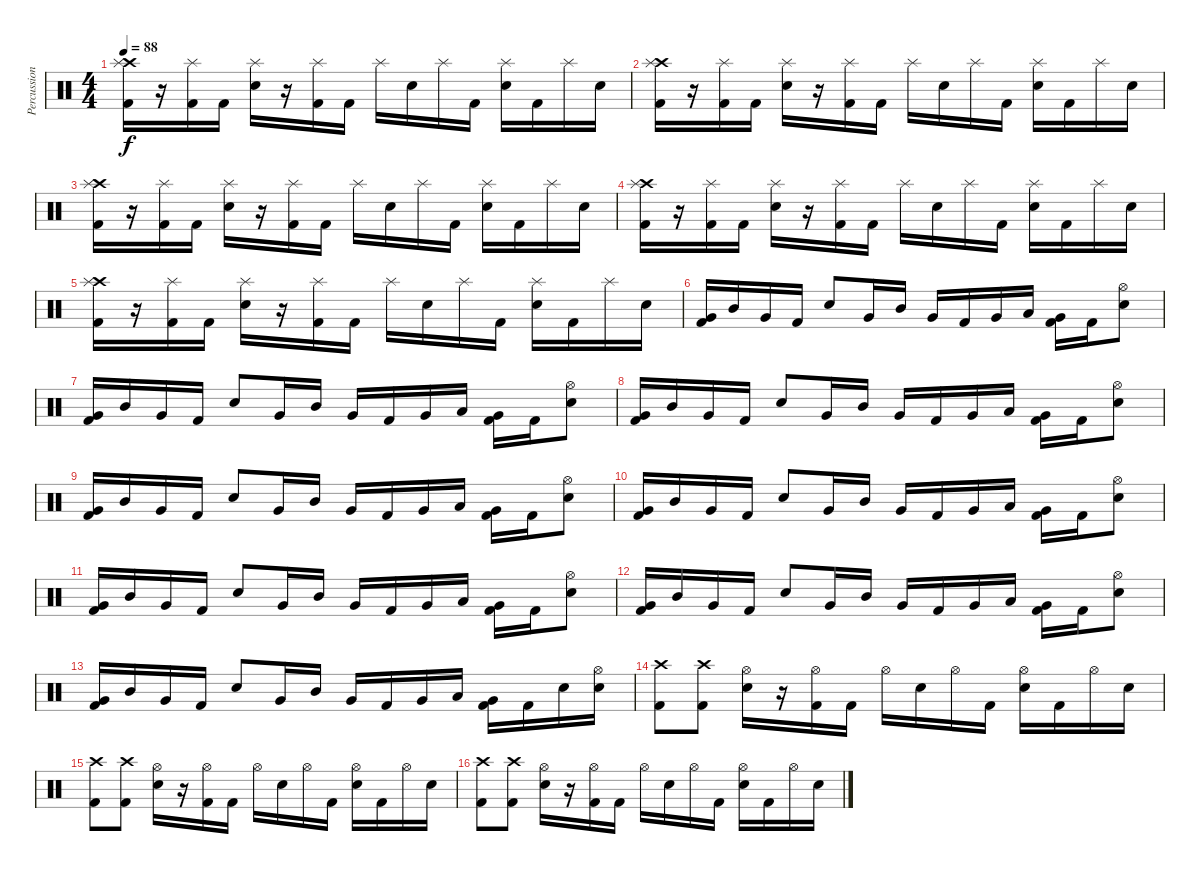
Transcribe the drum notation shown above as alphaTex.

\track ("Percussion" "Percussion") {instrument percussion}
\staff {score}
\articulation defaults
\ts (4 4)
\tempo 88
\clef neutral
\ks c
("Crash high (hit)" "Splash (hit)" "Kick (hit) 2").16{dy f} r.16 ("Splash (hit)" "Kick (hit) 2").16 "Kick (hit) 2".16 ("Splash (hit)" "Electric Snare (hit)").16 r.16 ("Splash (hit)" "Kick (hit) 2").16 "Kick (hit) 2".16 "Splash (hit)".16 "Electric Snare (hit)".16 "Splash (hit)".16 "Kick (hit) 2".16 ("Splash (hit)" "Electric Snare (hit)").16 "Kick (hit) 2".16 "Splash (hit)".16 "Electric Snare (hit)".16 |
("Crash high (hit)" "Splash (hit)" "Kick (hit) 2").16 r.16 ("Splash (hit)" "Kick (hit) 2").16 "Kick (hit) 2".16 ("Splash (hit)" "Electric Snare (hit)").16 r.16 ("Splash (hit)" "Kick (hit) 2").16 "Kick (hit) 2".16 "Splash (hit)".16 "Electric Snare (hit)".16 "Splash (hit)".16 "Kick (hit) 2".16 ("Splash (hit)" "Electric Snare (hit)").16 "Kick (hit) 2".16 "Splash (hit)".16 "Electric Snare (hit)".16 |
("Crash high (hit)" "Splash (hit)" "Kick (hit) 2").16 r.16 ("Splash (hit)" "Kick (hit) 2").16 "Kick (hit) 2".16 ("Splash (hit)" "Electric Snare (hit)").16 r.16 ("Splash (hit)" "Kick (hit) 2").16 "Kick (hit) 2".16 "Splash (hit)".16 "Electric Snare (hit)".16 "Splash (hit)".16 "Kick (hit) 2".16 ("Splash (hit)" "Electric Snare (hit)").16 "Kick (hit) 2".16 "Splash (hit)".16 "Electric Snare (hit)".16 |
("Crash high (hit)" "Splash (hit)" "Kick (hit) 2").16 r.16 ("Splash (hit)" "Kick (hit) 2").16 "Kick (hit) 2".16 ("Splash (hit)" "Electric Snare (hit)").16 r.16 ("Splash (hit)" "Kick (hit) 2").16 "Kick (hit) 2".16 "Splash (hit)".16 "Electric Snare (hit)".16 "Splash (hit)".16 "Kick (hit) 2".16 ("Splash (hit)" "Electric Snare (hit)").16 "Kick (hit) 2".16 "Splash (hit)".16 "Electric Snare (hit)".16 |
("Crash high (hit)" "Splash (hit)" "Kick (hit) 2").16 r.16 ("Splash (hit)" "Kick (hit) 2").16 "Kick (hit) 2".16 ("Splash (hit)" "Electric Snare (hit)").16 r.16 ("Splash (hit)" "Kick (hit) 2").16 "Kick (hit) 2".16 "Splash (hit)".16 "Electric Snare (hit)".16 "Splash (hit)".16 "Kick (hit) 2".16 ("Splash (hit)" "Electric Snare (hit)").16 "Kick (hit) 2".16 "Splash (hit)".16 "Electric Snare (hit)".16 |
("Very Low Tom (hit)" "Kick (hit) 2").16 "Mid Tom (hit)".16 "Very Low Tom (hit)".16 "Kick (hit) 2".16 "Electric Snare (hit)".8 "Very Low Tom (hit)".16 "Mid Tom (hit)".16 "Very Low Tom (hit)".16 "Kick (hit) 2".16 "Very Low Tom (hit)".16 "Low Tom (hit)".16 ("Very Low Tom (hit)" "Kick (hit) 2").16 "Kick (hit) 2".16 ("Hi-Hat (open)" "Electric Snare (hit)").8 |
("Very Low Tom (hit)" "Kick (hit) 2").16 "Mid Tom (hit)".16 "Very Low Tom (hit)".16 "Kick (hit) 2".16 "Electric Snare (hit)".8 "Very Low Tom (hit)".16 "Mid Tom (hit)".16 "Very Low Tom (hit)".16 "Kick (hit) 2".16 "Very Low Tom (hit)".16 "Low Tom (hit)".16 ("Very Low Tom (hit)" "Kick (hit) 2").16 "Kick (hit) 2".16 ("Hi-Hat (open)" "Electric Snare (hit)").8 |
("Very Low Tom (hit)" "Kick (hit) 2").16 "Mid Tom (hit)".16 "Very Low Tom (hit)".16 "Kick (hit) 2".16 "Electric Snare (hit)".8 "Very Low Tom (hit)".16 "Mid Tom (hit)".16 "Very Low Tom (hit)".16 "Kick (hit) 2".16 "Very Low Tom (hit)".16 "Low Tom (hit)".16 ("Very Low Tom (hit)" "Kick (hit) 2").16 "Kick (hit) 2".16 ("Hi-Hat (open)" "Electric Snare (hit)").8 |
("Very Low Tom (hit)" "Kick (hit) 2").16 "Mid Tom (hit)".16 "Very Low Tom (hit)".16 "Kick (hit) 2".16 "Electric Snare (hit)".8 "Very Low Tom (hit)".16 "Mid Tom (hit)".16 "Very Low Tom (hit)".16 "Kick (hit) 2".16 "Very Low Tom (hit)".16 "Low Tom (hit)".16 ("Very Low Tom (hit)" "Kick (hit) 2").16 "Kick (hit) 2".16 ("Hi-Hat (open)" "Electric Snare (hit)").8 |
("Very Low Tom (hit)" "Kick (hit) 2").16 "Mid Tom (hit)".16 "Very Low Tom (hit)".16 "Kick (hit) 2".16 "Electric Snare (hit)".8 "Very Low Tom (hit)".16 "Mid Tom (hit)".16 "Very Low Tom (hit)".16 "Kick (hit) 2".16 "Very Low Tom (hit)".16 "Low Tom (hit)".16 ("Very Low Tom (hit)" "Kick (hit) 2").16 "Kick (hit) 2".16 ("Hi-Hat (open)" "Electric Snare (hit)").8 |
("Very Low Tom (hit)" "Kick (hit) 2").16 "Mid Tom (hit)".16 "Very Low Tom (hit)".16 "Kick (hit) 2".16 "Electric Snare (hit)".8 "Very Low Tom (hit)".16 "Mid Tom (hit)".16 "Very Low Tom (hit)".16 "Kick (hit) 2".16 "Very Low Tom (hit)".16 "Low Tom (hit)".16 ("Very Low Tom (hit)" "Kick (hit) 2").16 "Kick (hit) 2".16 ("Hi-Hat (open)" "Electric Snare (hit)").8 |
("Very Low Tom (hit)" "Kick (hit) 2").16 "Mid Tom (hit)".16 "Very Low Tom (hit)".16 "Kick (hit) 2".16 "Electric Snare (hit)".8 "Very Low Tom (hit)".16 "Mid Tom (hit)".16 "Very Low Tom (hit)".16 "Kick (hit) 2".16 "Very Low Tom (hit)".16 "Low Tom (hit)".16 ("Very Low Tom (hit)" "Kick (hit) 2").16 "Kick (hit) 2".16 ("Hi-Hat (open)" "Electric Snare (hit)").8 |
("Very Low Tom (hit)" "Kick (hit) 2").16 "Mid Tom (hit)".16 "Very Low Tom (hit)".16 "Kick (hit) 2".16 "Electric Snare (hit)".8 "Very Low Tom (hit)".16 "Mid Tom (hit)".16 "Very Low Tom (hit)".16 "Kick (hit) 2".16 "Very Low Tom (hit)".16 "Low Tom (hit)".16 ("Very Low Tom (hit)" "Kick (hit) 2").16 "Kick (hit) 2".16 "Electric Snare (hit)".16 ("Hi-Hat (open)" "Electric Snare (hit)").16 |
("Crash high (hit)" "Kick (hit) 2").8 ("Crash high (hit)" "Kick (hit) 2").8 ("Hi-Hat (open)" "Electric Snare (hit)").16 r.16 ("Hi-Hat (open)" "Kick (hit) 2").16 "Kick (hit) 2".16 "Hi-Hat (open)".16 "Electric Snare (hit)".16 "Hi-Hat (open)".16 "Kick (hit) 2".16 ("Hi-Hat (open)" "Electric Snare (hit)").16 "Kick (hit) 2".16 "Hi-Hat (open)".16 "Electric Snare (hit)".16 |
("Crash high (hit)" "Kick (hit) 2").8 ("Crash high (hit)" "Kick (hit) 2").8 ("Hi-Hat (open)" "Electric Snare (hit)").16 r.16 ("Hi-Hat (open)" "Kick (hit) 2").16 "Kick (hit) 2".16 "Hi-Hat (open)".16 "Electric Snare (hit)".16 "Hi-Hat (open)".16 "Kick (hit) 2".16 ("Hi-Hat (open)" "Electric Snare (hit)").16 "Kick (hit) 2".16 "Hi-Hat (open)".16 "Electric Snare (hit)".16 |
("Crash high (hit)" "Kick (hit) 2").8 ("Crash high (hit)" "Kick (hit) 2").8 ("Hi-Hat (open)" "Electric Snare (hit)").16 r.16 ("Hi-Hat (open)" "Kick (hit) 2").16 "Kick (hit) 2".16 "Hi-Hat (open)".16 "Electric Snare (hit)".16 "Hi-Hat (open)".16 "Kick (hit) 2".16 ("Hi-Hat (open)" "Electric Snare (hit)").16 "Kick (hit) 2".16 "Hi-Hat (open)".16 "Electric Snare (hit)".16
